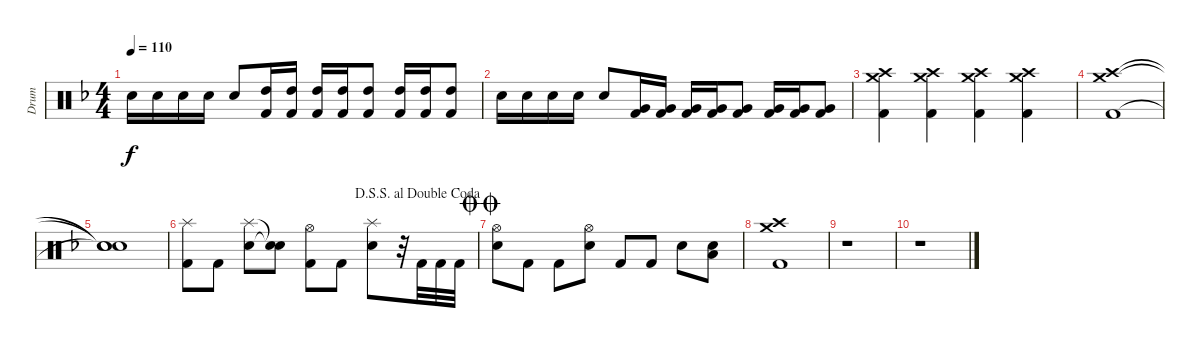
\track ("Drum" "Drum") {instrument percussion}
\staff {score}
\articulation defaults
\ts (4 4)
\tempo 110
\clef neutral
\ks f "Electric Snare (hit)".16{dy f} "Electric Snare (hit)".16 "Electric Snare (hit)".16 "Electric Snare (hit)".16 "Electric Snare (hit)".8
("High Tom (hit)" "Kick (hit) 2").16 ("High Tom (hit)" "Kick (hit) 2").16 ("High Tom (hit)" "Kick (hit) 2").16 ("High Tom (hit)" "Kick (hit) 2").16 ("High Tom (hit)" "Kick (hit) 2").8 ("High Tom (hit)" "Kick (hit) 2").16 ("High Tom (hit)" "Kick (hit) 2").16 ("High Tom (hit)" "Kick (hit) 2").8 |
"Snare (hit) 2".16 "Snare (hit) 2".16 "Snare (hit) 2".16 "Snare (hit) 2".16 "Snare (hit) 2".8 ("Very Low Tom (hit)" "Kick (hit) 2").16 ("Very Low Tom (hit)" "Kick (hit) 2").16 ("Very Low Tom (hit)" "Kick (hit) 2").16 ("Very Low Tom (hit)" "Kick (hit) 2").16 ("Very Low Tom (hit)" "Kick (hit) 2").8 ("Very Low Tom (hit)" "Kick (hit) 2").16 ("Very Low Tom (hit)" "Kick (hit) 2").16 ("Very Low Tom (hit)" "Kick (hit) 2").8 |
("Crash medium (hit)" "Crash high (hit)" "Kick (hit) 2").4 ("Crash medium (hit)" "Crash high (hit)" "Kick (hit) 2").4 ("Crash medium (hit)" "Crash high (hit)" "Kick (hit) 2").4 ("Crash medium (hit)" "Crash high (hit)" "Kick (hit) 2").4 |
("Crash medium (hit)" "Crash high (hit)" "Kick (hit) 2").1 |
("Snare (hit)"{t} "Snare (hit)"{t} "Snare (hit)"{t}).1 |
\jump dalsegnosegnoaldoublecoda
("Splash (hit)" "Kick (hit) 2").8 "Kick (hit) 2".8 ("Splash (hit)" "Electric Snare (hit)").8 ("Snare (hit)"{t} "Snare (hit)"{t}).8 ("Hi-Hat (open)" "Kick (hit) 2").8 "Kick (hit) 2".8 ("Splash (hit)" "Snare (hit) 2").8 r.32 "Kick (hit) 2".32 "Kick (hit) 2".32 "Kick (hit) 2".32 |
\jump doublecoda
("Hi-Hat (open)" "Electric Snare (hit)").8 "Kick (hit) 2".8 "Kick (hit) 2".8 ("Hi-Hat (open)" "Electric Snare (hit)").8 "Kick (hit) 2".8 "Kick (hit) 2".8 "Electric Snare (hit)".8 ("Low Floor Tom (hit)" "Electric Snare (hit)").8 |
("Crash high (hit)" "Crash medium (hit)" "Kick (hit) 2").1 |
r.1 |
r.1
